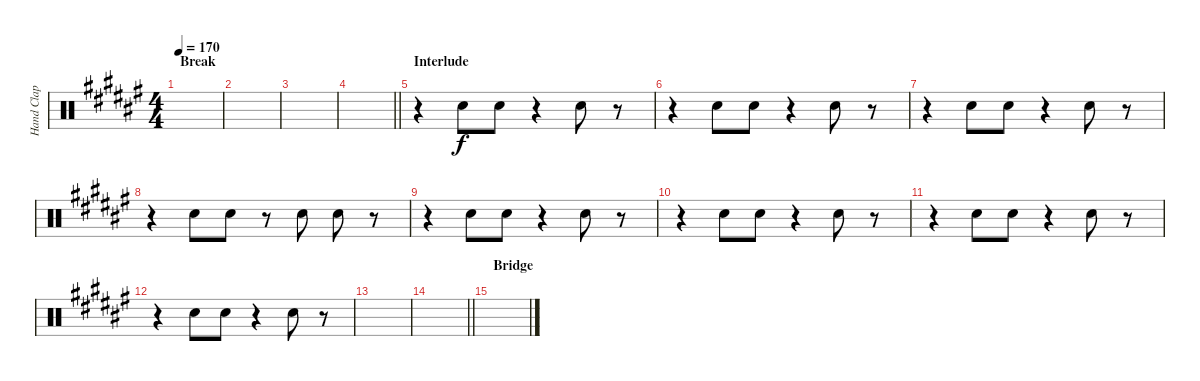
\track ("Hand Clap" "Hand Clap") {instrument percussion}
\staff {score}
\articulation defaults
\ts (4 4)
\section ("" "Break")
\tempo 170
\clef neutral
\ks f#
|
|
|
\barLineRight lightlight
|
\section ("" "Interlude")
r.4 "Hand Clap (hit)".8 "Hand Clap (hit)".8 r.4 "Hand Clap (hit)".8 r.8 |
r.4 "Hand Clap (hit)".8 "Hand Clap (hit)".8 r.4 "Hand Clap (hit)".8 r.8 |
r.4 "Hand Clap (hit)".8 "Hand Clap (hit)".8 r.4 "Hand Clap (hit)".8 r.8 |
r.4 "Hand Clap (hit)".8 "Hand Clap (hit)".8 r.8 "Hand Clap (hit)".8 "Hand Clap (hit)".8 r.8 |
r.4 "Hand Clap (hit)".8 "Hand Clap (hit)".8 r.4 "Hand Clap (hit)".8 r.8 |
r.4 "Hand Clap (hit)".8 "Hand Clap (hit)".8 r.4 "Hand Clap (hit)".8 r.8 |
r.4 "Hand Clap (hit)".8 "Hand Clap (hit)".8 r.4 "Hand Clap (hit)".8 r.8 |
r.4 "Hand Clap (hit)".8 "Hand Clap (hit)".8 r.4 "Hand Clap (hit)".8 r.8 |
|
\barLineRight lightlight
|
\section ("" "Bridge")
